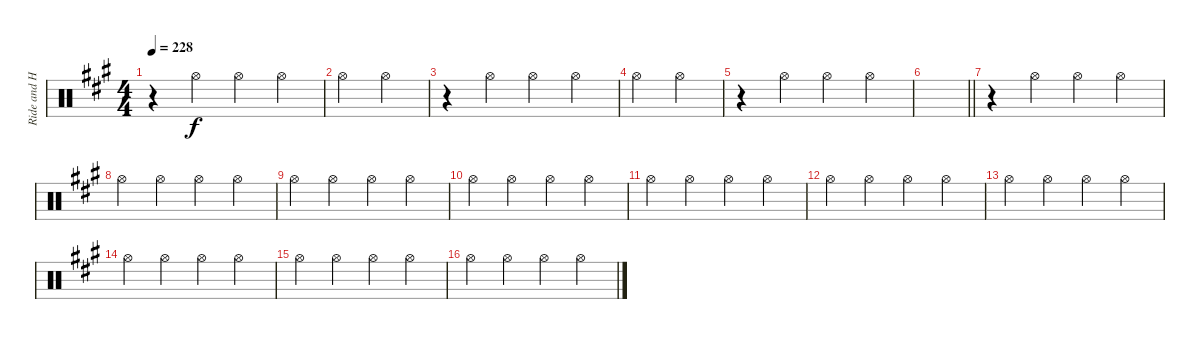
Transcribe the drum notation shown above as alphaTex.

\track ("Ride and Hi Hat" "Ride and H") {instrument percussion}
\staff {score}
\articulation defaults
\ts (4 4)
\tempo 228
\clef neutral
\ks a
r.4{dy f} "Hi-Hat (open)".4 "Hi-Hat (open)".4 "Hi-Hat (open)".4 |
"Hi-Hat (open)".4 "Hi-Hat (open)".4 |
r.4 "Hi-Hat (open)".4 "Hi-Hat (open)".4 "Hi-Hat (open)".4 |
"Hi-Hat (open)".4 "Hi-Hat (open)".4 |
r.4 "Hi-Hat (open)".4 "Hi-Hat (open)".4 "Hi-Hat (open)".4 |
\barLineRight lightlight
|
r.4 "Hi-Hat (open)".4 "Hi-Hat (open)".4 "Hi-Hat (open)".4 |
"Hi-Hat (open)".4 "Hi-Hat (open)".4 "Hi-Hat (open)".4 "Hi-Hat (open)".4 |
"Hi-Hat (open)".4 "Hi-Hat (open)".4 "Hi-Hat (open)".4 "Hi-Hat (open)".4 |
"Hi-Hat (open)".4 "Hi-Hat (open)".4 "Hi-Hat (open)".4 "Hi-Hat (open)".4 |
"Hi-Hat (open)".4 "Hi-Hat (open)".4 "Hi-Hat (open)".4 "Hi-Hat (open)".4 |
"Hi-Hat (open)".4 "Hi-Hat (open)".4 "Hi-Hat (open)".4 "Hi-Hat (open)".4 |
"Hi-Hat (open)".4 "Hi-Hat (open)".4 "Hi-Hat (open)".4 "Hi-Hat (open)".4 |
"Hi-Hat (open)".4 "Hi-Hat (open)".4 "Hi-Hat (open)".4 "Hi-Hat (open)".4 |
"Hi-Hat (open)".4 "Hi-Hat (open)".4 "Hi-Hat (open)".4 "Hi-Hat (open)".4 |
"Hi-Hat (open)".4 "Hi-Hat (open)".4 "Hi-Hat (open)".4 "Hi-Hat (open)".4
